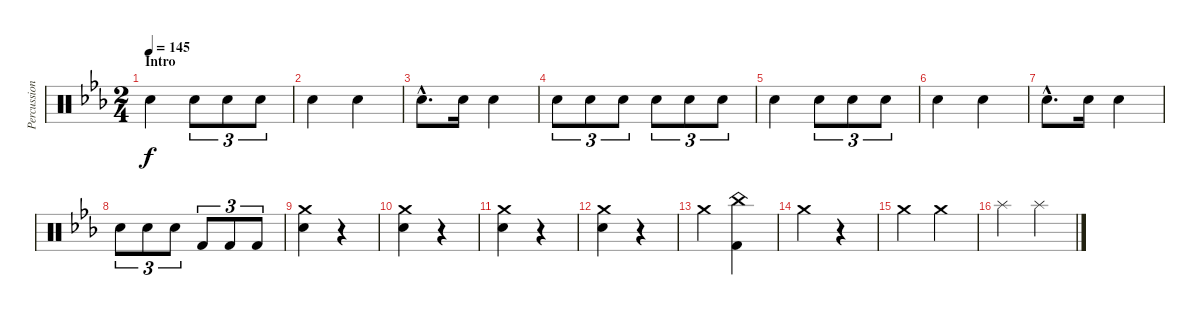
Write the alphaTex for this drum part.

\track ("Percussion" "Percussion") {instrument percussion}
\staff {score}
\articulation defaults
\ts (2 4)
\section ("" "Intro")
\tempo 145
\clef neutral
\ks cminor "Electric Snare (hit)".4{dy f} "Electric Snare (hit)".8{tu (3 2)} "Electric Snare (hit)".8{tu (3 2)} "Electric Snare (hit)".8{tu (3 2)}
|
"Electric Snare (hit)".4 "Electric Snare (hit)".4 |
"Electric Snare (hit)"{hac}.8{d} "Electric Snare (hit)".16 "Electric Snare (hit)".4 |
"Electric Snare (hit)".8{tu (3 2)} "Electric Snare (hit)".8{tu (3 2)} "Electric Snare (hit)".8{tu (3 2)} "Electric Snare (hit)".8{tu (3 2)} "Electric Snare (hit)".8{tu (3 2)} "Electric Snare (hit)".8{tu (3 2)} |
"Electric Snare (hit)".4 "Electric Snare (hit)".8{tu (3 2)} "Electric Snare (hit)".8{tu (3 2)} "Electric Snare (hit)".8{tu (3 2)} |
"Electric Snare (hit)".4 "Electric Snare (hit)".4 |
"Electric Snare (hit)"{hac}.8{d} "Electric Snare (hit)".16 "Electric Snare (hit)".4 |
"Electric Snare (hit)".8{tu (3 2)} "Electric Snare (hit)".8{tu (3 2)} "Electric Snare (hit)".8{tu (3 2)} "Kick (hit) 2".8{tu (3 2)} "Kick (hit) 2".8{tu (3 2)} "Kick (hit) 2".8{tu (3 2)} |
("Crash medium (hit)" "Snare (hit) 2").4 r.4 |
("Crash medium (hit)" "Snare (hit) 2").4 r.4 |
("Crash medium (hit)" "Snare (hit) 2").4 r.4 |
("Crash medium (hit)" "Snare (hit) 2").4 r.4 |
"Crash medium (hit)".4 ("China (hit)" "Kick (hit) 2").4 |
"Crash medium (hit)".4 r.4 |
"Crash medium (hit)".4 "Crash medium (hit)".4 |
"Splash (hit)".4 "Splash (hit)".4
